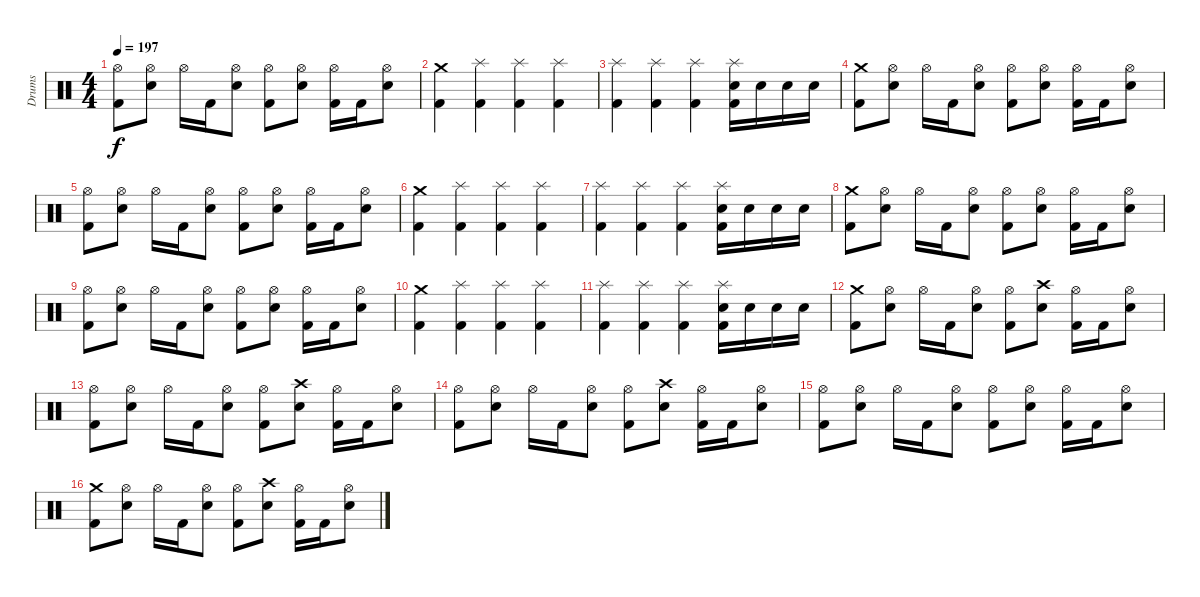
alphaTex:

\track ("Drums" "Drums") {instrument percussion}
\staff {score}
\articulation defaults
\ts (4 4)
\tempo 197
\clef neutral
\ks c
("Hi-Hat (open)" "Kick (hit) 2").8{dy f} ("Hi-Hat (open)" "Snare (hit) 2").8 "Hi-Hat (open)".16 "Kick (hit) 2".16 ("Hi-Hat (open)" "Snare (hit) 2").8 ("Hi-Hat (open)" "Kick (hit) 2").8 ("Hi-Hat (open)" "Snare (hit) 2").8 ("Hi-Hat (open)" "Kick (hit) 2").16 "Kick (hit) 2".16 ("Hi-Hat (open)" "Snare (hit) 2").8 |
("Crash medium (hit)" "Kick (hit) 2").4 ("Splash (hit)" "Kick (hit) 2").4 ("Splash (hit)" "Kick (hit) 2").4 ("Splash (hit)" "Kick (hit) 2").4 |
("Splash (hit)" "Kick (hit) 2").4 ("Splash (hit)" "Kick (hit) 2").4 ("Splash (hit)" "Kick (hit) 2").4 ("Splash (hit)" "Snare (hit) 2" "Kick (hit) 2").16 "Snare (hit) 2".16 "Snare (hit) 2".16 "Snare (hit) 2".16 |
("Crash medium (hit)" "Kick (hit) 2").8 ("Hi-Hat (open)" "Snare (hit) 2").8 "Hi-Hat (open)".16 "Kick (hit) 2".16 ("Hi-Hat (open)" "Snare (hit) 2").8 ("Hi-Hat (open)" "Kick (hit) 2").8 ("Hi-Hat (open)" "Snare (hit) 2").8 ("Hi-Hat (open)" "Kick (hit) 2").16 "Kick (hit) 2".16 ("Hi-Hat (open)" "Snare (hit) 2").8 |
("Hi-Hat (open)" "Kick (hit) 2").8 ("Hi-Hat (open)" "Snare (hit) 2").8 "Hi-Hat (open)".16 "Kick (hit) 2".16 ("Hi-Hat (open)" "Snare (hit) 2").8 ("Hi-Hat (open)" "Kick (hit) 2").8 ("Hi-Hat (open)" "Snare (hit) 2").8 ("Hi-Hat (open)" "Kick (hit) 2").16 "Kick (hit) 2".16 ("Hi-Hat (open)" "Snare (hit) 2").8 |
("Crash medium (hit)" "Kick (hit) 2").4 ("Splash (hit)" "Kick (hit) 2").4 ("Splash (hit)" "Kick (hit) 2").4 ("Splash (hit)" "Kick (hit) 2").4 |
("Splash (hit)" "Kick (hit) 2").4 ("Splash (hit)" "Kick (hit) 2").4 ("Splash (hit)" "Kick (hit) 2").4 ("Splash (hit)" "Snare (hit) 2" "Kick (hit) 2").16 "Snare (hit) 2".16 "Snare (hit) 2".16 "Snare (hit) 2".16 |
("Crash medium (hit)" "Kick (hit) 2").8 ("Hi-Hat (open)" "Snare (hit) 2").8 "Hi-Hat (open)".16 "Kick (hit) 2".16 ("Hi-Hat (open)" "Snare (hit) 2").8 ("Hi-Hat (open)" "Kick (hit) 2").8 ("Hi-Hat (open)" "Snare (hit) 2").8 ("Hi-Hat (open)" "Kick (hit) 2").16 "Kick (hit) 2".16 ("Hi-Hat (open)" "Snare (hit) 2").8 |
("Hi-Hat (open)" "Kick (hit) 2").8 ("Hi-Hat (open)" "Snare (hit) 2").8 "Hi-Hat (open)".16 "Kick (hit) 2".16 ("Hi-Hat (open)" "Snare (hit) 2").8 ("Hi-Hat (open)" "Kick (hit) 2").8 ("Hi-Hat (open)" "Snare (hit) 2").8 ("Hi-Hat (open)" "Kick (hit) 2").16 "Kick (hit) 2".16 ("Hi-Hat (open)" "Snare (hit) 2").8 |
("Crash medium (hit)" "Kick (hit) 2").4 ("Splash (hit)" "Kick (hit) 2").4 ("Splash (hit)" "Kick (hit) 2").4 ("Splash (hit)" "Kick (hit) 2").4 |
("Splash (hit)" "Kick (hit) 2").4 ("Splash (hit)" "Kick (hit) 2").4 ("Splash (hit)" "Kick (hit) 2").4 ("Splash (hit)" "Snare (hit) 2" "Kick (hit) 2").16 "Snare (hit) 2".16 "Snare (hit) 2".16 "Snare (hit) 2".16 |
("Crash medium (hit)" "Kick (hit) 2").8 ("Hi-Hat (open)" "Snare (hit) 2").8 "Hi-Hat (open)".16 "Kick (hit) 2".16 ("Hi-Hat (open)" "Snare (hit) 2").8 ("Hi-Hat (open)" "Kick (hit) 2").8 ("Crash high (hit)" "Snare (hit) 2").8 ("Hi-Hat (open)" "Kick (hit) 2").16 "Kick (hit) 2".16 ("Hi-Hat (open)" "Snare (hit) 2").8 |
("Hi-Hat (open)" "Kick (hit) 2").8 ("Hi-Hat (open)" "Snare (hit) 2").8 "Hi-Hat (open)".16 "Kick (hit) 2".16 ("Hi-Hat (open)" "Snare (hit) 2").8 ("Hi-Hat (open)" "Kick (hit) 2").8 ("Crash high (hit)" "Snare (hit) 2").8 ("Hi-Hat (open)" "Kick (hit) 2").16 "Kick (hit) 2".16 ("Hi-Hat (open)" "Snare (hit) 2").8 |
("Hi-Hat (open)" "Kick (hit) 2").8 ("Hi-Hat (open)" "Snare (hit) 2").8 "Hi-Hat (open)".16 "Kick (hit) 2".16 ("Hi-Hat (open)" "Snare (hit) 2").8 ("Hi-Hat (open)" "Kick (hit) 2").8 ("Crash high (hit)" "Snare (hit) 2").8 ("Hi-Hat (open)" "Kick (hit) 2").16 "Kick (hit) 2".16 ("Hi-Hat (open)" "Snare (hit) 2").8 |
("Hi-Hat (open)" "Kick (hit) 2").8 ("Hi-Hat (open)" "Snare (hit) 2").8 "Hi-Hat (open)".16 "Kick (hit) 2".16 ("Hi-Hat (open)" "Snare (hit) 2").8 ("Hi-Hat (open)" "Kick (hit) 2").8 ("Hi-Hat (open)" "Snare (hit) 2").8 ("Hi-Hat (open)" "Kick (hit) 2").16 "Kick (hit) 2".16 ("Hi-Hat (open)" "Snare (hit) 2").8 |
("Crash medium (hit)" "Kick (hit) 2").8 ("Hi-Hat (open)" "Snare (hit) 2").8 "Hi-Hat (open)".16 "Kick (hit) 2".16 ("Hi-Hat (open)" "Snare (hit) 2").8 ("Hi-Hat (open)" "Kick (hit) 2").8 ("Crash high (hit)" "Snare (hit) 2").8 ("Hi-Hat (open)" "Kick (hit) 2").16 "Kick (hit) 2".16 ("Hi-Hat (open)" "Snare (hit) 2").8
